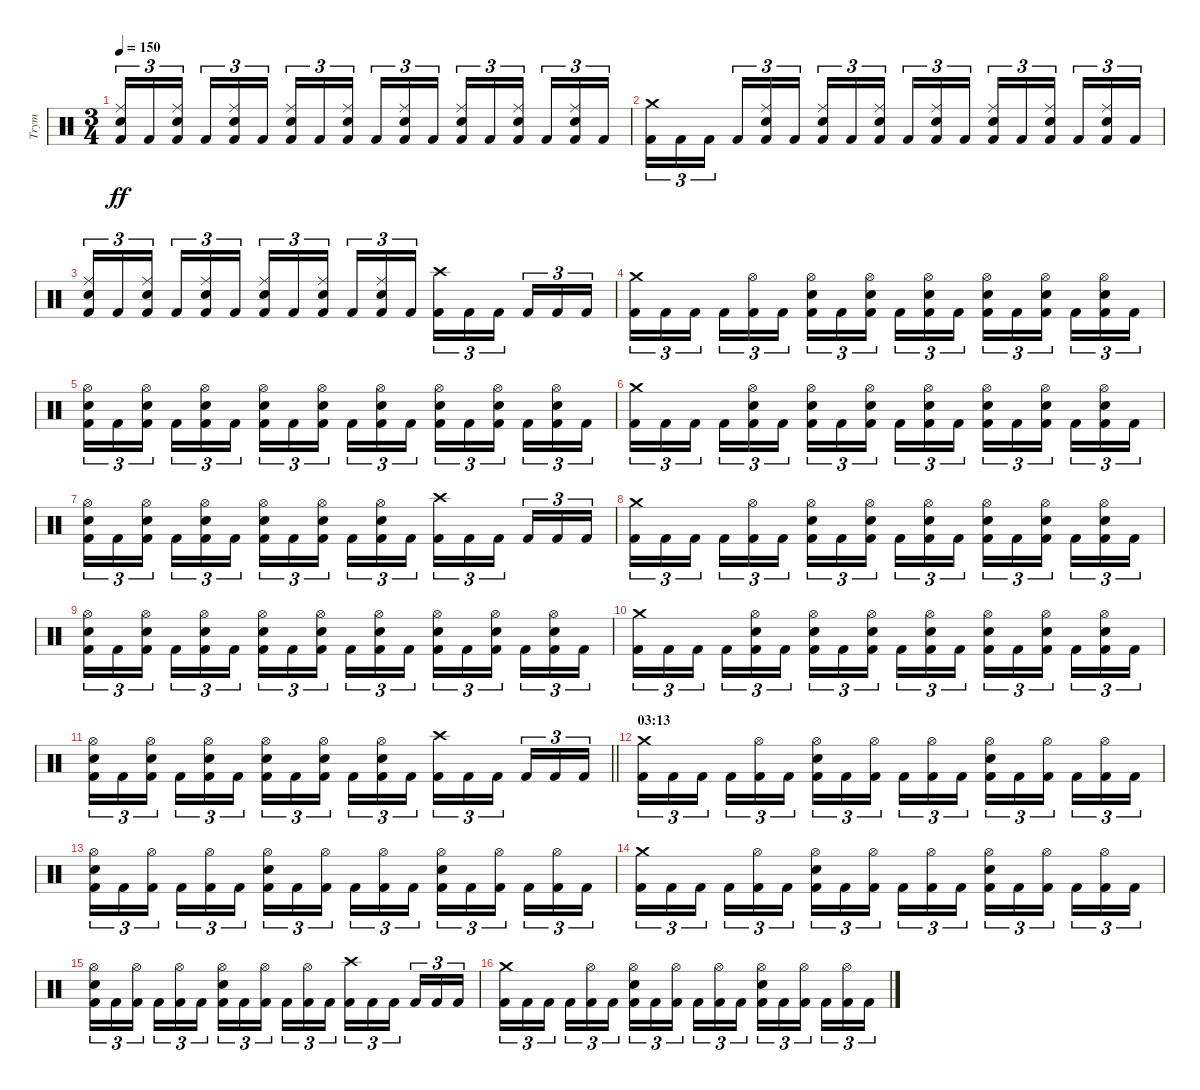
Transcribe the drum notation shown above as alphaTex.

\track ("Trym" "Trym") {instrument percussion}
\staff {score}
\articulation defaults
\ts (3 4)
\tempo 150
\clef neutral
\ks c
("Snare (hit) 2" "Ride (middle)" "Kick (hit) 2").16{tu (3 2) dy ff} "Kick (hit) 2".16{tu (3 2)} ("Snare (hit) 2" "Ride (middle)" "Kick (hit) 2").16{tu (3 2) beam splitsecondary} "Kick (hit) 2".16{tu (3 2)} ("Snare (hit) 2" "Ride (middle)" "Kick (hit) 2").16{tu (3 2)} "Kick (hit) 2".16{tu (3 2)} ("Snare (hit) 2" "Ride (middle)" "Kick (hit) 2").16{tu (3 2)} "Kick (hit) 2".16{tu (3 2)} ("Snare (hit) 2" "Ride (middle)" "Kick (hit) 2").16{tu (3 2) beam splitsecondary} "Kick (hit) 2".16{tu (3 2)} ("Snare (hit) 2" "Ride (middle)" "Kick (hit) 2").16{tu (3 2)} "Kick (hit) 2".16{tu (3 2)} ("Snare (hit) 2" "Ride (middle)" "Kick (hit) 2").16{tu (3 2)} "Kick (hit) 2".16{tu (3 2)} ("Snare (hit) 2" "Ride (middle)" "Kick (hit) 2").16{tu (3 2) beam splitsecondary} "Kick (hit) 2".16{tu (3 2)} ("Snare (hit) 2" "Ride (middle)" "Kick (hit) 2").16{tu (3 2)} "Kick (hit) 2".16{tu (3 2)} |
("Crash medium (hit)" "Kick (hit) 2").16{tu (3 2)} "Kick (hit) 2".16{tu (3 2)} "Kick (hit) 2".16{tu (3 2) beam splitsecondary} "Kick (hit) 2".16{tu (3 2)} ("Snare (hit) 2" "Ride (middle)" "Kick (hit) 2").16{tu (3 2)} "Kick (hit) 2".16{tu (3 2)} ("Snare (hit) 2" "Ride (middle)" "Kick (hit) 2").16{tu (3 2)} "Kick (hit) 2".16{tu (3 2)} ("Snare (hit) 2" "Ride (middle)" "Kick (hit) 2").16{tu (3 2) beam splitsecondary} "Kick (hit) 2".16{tu (3 2)} ("Snare (hit) 2" "Ride (middle)" "Kick (hit) 2").16{tu (3 2)} "Kick (hit) 2".16{tu (3 2)} ("Snare (hit) 2" "Ride (middle)" "Kick (hit) 2").16{tu (3 2)} "Kick (hit) 2".16{tu (3 2)} ("Snare (hit) 2" "Ride (middle)" "Kick (hit) 2").16{tu (3 2) beam splitsecondary} "Kick (hit) 2".16{tu (3 2)} ("Snare (hit) 2" "Ride (middle)" "Kick (hit) 2").16{tu (3 2)} "Kick (hit) 2".16{tu (3 2)} |
("Snare (hit) 2" "Ride (middle)" "Kick (hit) 2").16{tu (3 2)} "Kick (hit) 2".16{tu (3 2)} ("Snare (hit) 2" "Ride (middle)" "Kick (hit) 2").16{tu (3 2) beam splitsecondary} "Kick (hit) 2".16{tu (3 2)} ("Snare (hit) 2" "Ride (middle)" "Kick (hit) 2").16{tu (3 2)} "Kick (hit) 2".16{tu (3 2)} ("Snare (hit) 2" "Ride (middle)" "Kick (hit) 2").16{tu (3 2)} "Kick (hit) 2".16{tu (3 2)} ("Snare (hit) 2" "Ride (middle)" "Kick (hit) 2").16{tu (3 2) beam splitsecondary} "Kick (hit) 2".16{tu (3 2)} ("Snare (hit) 2" "Ride (middle)" "Kick (hit) 2").16{tu (3 2)} "Kick (hit) 2".16{tu (3 2)} ("Crash high (hit)" "Kick (hit) 2").16{tu (3 2)} "Kick (hit) 2".16{tu (3 2)} "Kick (hit) 2".16{tu (3 2) beam splitsecondary} "Kick (hit) 2".16{tu (3 2)} "Kick (hit) 2".16{tu (3 2)} "Kick (hit) 2".16{tu (3 2)} |
("Crash medium (hit)" "Kick (hit) 2").16{tu (3 2)} "Kick (hit) 2".16{tu (3 2)} "Kick (hit) 2".16{tu (3 2) beam splitsecondary} "Kick (hit) 2".16{tu (3 2)} ("Hi-Hat (open)" "Kick (hit) 2").16{tu (3 2)} "Kick (hit) 2".16{tu (3 2)} ("Snare (hit) 2" "Hi-Hat (open)" "Kick (hit) 2").16{tu (3 2)} "Kick (hit) 2".16{tu (3 2)} ("Snare (hit) 2" "Hi-Hat (open)" "Kick (hit) 2").16{tu (3 2) beam splitsecondary} "Kick (hit) 2".16{tu (3 2)} ("Snare (hit) 2" "Hi-Hat (open)" "Kick (hit) 2").16{tu (3 2)} "Kick (hit) 2".16{tu (3 2)} ("Snare (hit) 2" "Hi-Hat (open)" "Kick (hit) 2").16{tu (3 2)} "Kick (hit) 2".16{tu (3 2)} ("Snare (hit) 2" "Hi-Hat (open)" "Kick (hit) 2").16{tu (3 2) beam splitsecondary} "Kick (hit) 2".16{tu (3 2)} ("Snare (hit) 2" "Hi-Hat (open)" "Kick (hit) 2").16{tu (3 2)} "Kick (hit) 2".16{tu (3 2)} |
("Snare (hit) 2" "Hi-Hat (open)" "Kick (hit) 2").16{tu (3 2)} "Kick (hit) 2".16{tu (3 2)} ("Snare (hit) 2" "Hi-Hat (open)" "Kick (hit) 2").16{tu (3 2) beam splitsecondary} "Kick (hit) 2".16{tu (3 2)} ("Snare (hit) 2" "Hi-Hat (open)" "Kick (hit) 2").16{tu (3 2)} "Kick (hit) 2".16{tu (3 2)} ("Snare (hit) 2" "Hi-Hat (open)" "Kick (hit) 2").16{tu (3 2)} "Kick (hit) 2".16{tu (3 2)} ("Snare (hit) 2" "Hi-Hat (open)" "Kick (hit) 2").16{tu (3 2) beam splitsecondary} "Kick (hit) 2".16{tu (3 2)} ("Snare (hit) 2" "Hi-Hat (open)" "Kick (hit) 2").16{tu (3 2)} "Kick (hit) 2".16{tu (3 2)} ("Snare (hit) 2" "Hi-Hat (open)" "Kick (hit) 2").16{tu (3 2)} "Kick (hit) 2".16{tu (3 2)} ("Snare (hit) 2" "Hi-Hat (open)" "Kick (hit) 2").16{tu (3 2) beam splitsecondary} "Kick (hit) 2".16{tu (3 2)} ("Snare (hit) 2" "Hi-Hat (open)" "Kick (hit) 2").16{tu (3 2)} "Kick (hit) 2".16{tu (3 2)} |
("Crash medium (hit)" "Kick (hit) 2").16{tu (3 2)} "Kick (hit) 2".16{tu (3 2)} "Kick (hit) 2".16{tu (3 2) beam splitsecondary} "Kick (hit) 2".16{tu (3 2)} ("Snare (hit) 2" "Hi-Hat (open)" "Kick (hit) 2").16{tu (3 2)} "Kick (hit) 2".16{tu (3 2)} ("Snare (hit) 2" "Hi-Hat (open)" "Kick (hit) 2").16{tu (3 2)} "Kick (hit) 2".16{tu (3 2)} ("Snare (hit) 2" "Hi-Hat (open)" "Kick (hit) 2").16{tu (3 2) beam splitsecondary} "Kick (hit) 2".16{tu (3 2)} ("Snare (hit) 2" "Hi-Hat (open)" "Kick (hit) 2").16{tu (3 2)} "Kick (hit) 2".16{tu (3 2)} ("Snare (hit) 2" "Hi-Hat (open)" "Kick (hit) 2").16{tu (3 2)} "Kick (hit) 2".16{tu (3 2)} ("Snare (hit) 2" "Hi-Hat (open)" "Kick (hit) 2").16{tu (3 2) beam splitsecondary} "Kick (hit) 2".16{tu (3 2)} ("Snare (hit) 2" "Hi-Hat (open)" "Kick (hit) 2").16{tu (3 2)} "Kick (hit) 2".16{tu (3 2)} |
("Snare (hit) 2" "Hi-Hat (open)" "Kick (hit) 2").16{tu (3 2)} "Kick (hit) 2".16{tu (3 2)} ("Snare (hit) 2" "Hi-Hat (open)" "Kick (hit) 2").16{tu (3 2) beam splitsecondary} "Kick (hit) 2".16{tu (3 2)} ("Snare (hit) 2" "Hi-Hat (open)" "Kick (hit) 2").16{tu (3 2)} "Kick (hit) 2".16{tu (3 2)} ("Snare (hit) 2" "Hi-Hat (open)" "Kick (hit) 2").16{tu (3 2)} "Kick (hit) 2".16{tu (3 2)} ("Snare (hit) 2" "Hi-Hat (open)" "Kick (hit) 2").16{tu (3 2) beam splitsecondary} "Kick (hit) 2".16{tu (3 2)} ("Snare (hit) 2" "Hi-Hat (open)" "Kick (hit) 2").16{tu (3 2)} "Kick (hit) 2".16{tu (3 2)} ("Crash high (hit)" "Kick (hit) 2").16{tu (3 2)} "Kick (hit) 2".16{tu (3 2)} "Kick (hit) 2".16{tu (3 2) beam splitsecondary} "Kick (hit) 2".16{tu (3 2)} "Kick (hit) 2".16{tu (3 2)} "Kick (hit) 2".16{tu (3 2)} |
("Crash medium (hit)" "Kick (hit) 2").16{tu (3 2)} "Kick (hit) 2".16{tu (3 2)} "Kick (hit) 2".16{tu (3 2) beam splitsecondary} "Kick (hit) 2".16{tu (3 2)} ("Hi-Hat (open)" "Kick (hit) 2").16{tu (3 2)} "Kick (hit) 2".16{tu (3 2)} ("Snare (hit) 2" "Hi-Hat (open)" "Kick (hit) 2").16{tu (3 2)} "Kick (hit) 2".16{tu (3 2)} ("Snare (hit) 2" "Hi-Hat (open)" "Kick (hit) 2").16{tu (3 2) beam splitsecondary} "Kick (hit) 2".16{tu (3 2)} ("Snare (hit) 2" "Hi-Hat (open)" "Kick (hit) 2").16{tu (3 2)} "Kick (hit) 2".16{tu (3 2)} ("Snare (hit) 2" "Hi-Hat (open)" "Kick (hit) 2").16{tu (3 2)} "Kick (hit) 2".16{tu (3 2)} ("Snare (hit) 2" "Hi-Hat (open)" "Kick (hit) 2").16{tu (3 2) beam splitsecondary} "Kick (hit) 2".16{tu (3 2)} ("Snare (hit) 2" "Hi-Hat (open)" "Kick (hit) 2").16{tu (3 2)} "Kick (hit) 2".16{tu (3 2)} |
("Snare (hit) 2" "Hi-Hat (open)" "Kick (hit) 2").16{tu (3 2)} "Kick (hit) 2".16{tu (3 2)} ("Snare (hit) 2" "Hi-Hat (open)" "Kick (hit) 2").16{tu (3 2) beam splitsecondary} "Kick (hit) 2".16{tu (3 2)} ("Snare (hit) 2" "Hi-Hat (open)" "Kick (hit) 2").16{tu (3 2)} "Kick (hit) 2".16{tu (3 2)} ("Snare (hit) 2" "Hi-Hat (open)" "Kick (hit) 2").16{tu (3 2)} "Kick (hit) 2".16{tu (3 2)} ("Snare (hit) 2" "Hi-Hat (open)" "Kick (hit) 2").16{tu (3 2) beam splitsecondary} "Kick (hit) 2".16{tu (3 2)} ("Snare (hit) 2" "Hi-Hat (open)" "Kick (hit) 2").16{tu (3 2)} "Kick (hit) 2".16{tu (3 2)} ("Snare (hit) 2" "Hi-Hat (open)" "Kick (hit) 2").16{tu (3 2)} "Kick (hit) 2".16{tu (3 2)} ("Snare (hit) 2" "Hi-Hat (open)" "Kick (hit) 2").16{tu (3 2) beam splitsecondary} "Kick (hit) 2".16{tu (3 2)} ("Snare (hit) 2" "Hi-Hat (open)" "Kick (hit) 2").16{tu (3 2)} "Kick (hit) 2".16{tu (3 2)} |
("Crash medium (hit)" "Kick (hit) 2").16{tu (3 2)} "Kick (hit) 2".16{tu (3 2)} "Kick (hit) 2".16{tu (3 2) beam splitsecondary} "Kick (hit) 2".16{tu (3 2)} ("Snare (hit) 2" "Hi-Hat (open)" "Kick (hit) 2").16{tu (3 2)} "Kick (hit) 2".16{tu (3 2)} ("Snare (hit) 2" "Hi-Hat (open)" "Kick (hit) 2").16{tu (3 2)} "Kick (hit) 2".16{tu (3 2)} ("Snare (hit) 2" "Hi-Hat (open)" "Kick (hit) 2").16{tu (3 2) beam splitsecondary} "Kick (hit) 2".16{tu (3 2)} ("Snare (hit) 2" "Hi-Hat (open)" "Kick (hit) 2").16{tu (3 2)} "Kick (hit) 2".16{tu (3 2)} ("Snare (hit) 2" "Hi-Hat (open)" "Kick (hit) 2").16{tu (3 2)} "Kick (hit) 2".16{tu (3 2)} ("Snare (hit) 2" "Hi-Hat (open)" "Kick (hit) 2").16{tu (3 2) beam splitsecondary} "Kick (hit) 2".16{tu (3 2)} ("Snare (hit) 2" "Hi-Hat (open)" "Kick (hit) 2").16{tu (3 2)} "Kick (hit) 2".16{tu (3 2)} |
\barLineRight lightlight
("Snare (hit) 2" "Hi-Hat (open)" "Kick (hit) 2").16{tu (3 2)} "Kick (hit) 2".16{tu (3 2)} ("Snare (hit) 2" "Hi-Hat (open)" "Kick (hit) 2").16{tu (3 2) beam splitsecondary} "Kick (hit) 2".16{tu (3 2)} ("Snare (hit) 2" "Hi-Hat (open)" "Kick (hit) 2").16{tu (3 2)} "Kick (hit) 2".16{tu (3 2)} ("Snare (hit) 2" "Hi-Hat (open)" "Kick (hit) 2").16{tu (3 2)} "Kick (hit) 2".16{tu (3 2)} ("Snare (hit) 2" "Hi-Hat (open)" "Kick (hit) 2").16{tu (3 2) beam splitsecondary} "Kick (hit) 2".16{tu (3 2)} ("Snare (hit) 2" "Hi-Hat (open)" "Kick (hit) 2").16{tu (3 2)} "Kick (hit) 2".16{tu (3 2)} ("Crash high (hit)" "Kick (hit) 2").16{tu (3 2)} "Kick (hit) 2".16{tu (3 2)} "Kick (hit) 2".16{tu (3 2) beam splitsecondary} "Kick (hit) 2".16{tu (3 2)} "Kick (hit) 2".16{tu (3 2)} "Kick (hit) 2".16{tu (3 2)} |
\section ("" "03:13")
("Crash medium (hit)" "Kick (hit) 2").16{tu (3 2)} "Kick (hit) 2".16{tu (3 2)} "Kick (hit) 2".16{tu (3 2) beam splitsecondary} "Kick (hit) 2".16{tu (3 2)} ("Hi-Hat (open)" "Kick (hit) 2").16{tu (3 2)} "Kick (hit) 2".16{tu (3 2)} ("Snare (hit) 2" "Hi-Hat (open)" "Kick (hit) 2").16{tu (3 2)} "Kick (hit) 2".16{tu (3 2)} ("Hi-Hat (open)" "Kick (hit) 2").16{tu (3 2) beam splitsecondary} "Kick (hit) 2".16{tu (3 2)} ("Hi-Hat (open)" "Kick (hit) 2").16{tu (3 2)} "Kick (hit) 2".16{tu (3 2)} ("Snare (hit) 2" "Hi-Hat (open)" "Kick (hit) 2").16{tu (3 2)} "Kick (hit) 2".16{tu (3 2)} ("Hi-Hat (open)" "Kick (hit) 2").16{tu (3 2) beam splitsecondary} "Kick (hit) 2".16{tu (3 2)} ("Hi-Hat (open)" "Kick (hit) 2").16{tu (3 2)} "Kick (hit) 2".16{tu (3 2)} |
("Snare (hit) 2" "Hi-Hat (open)" "Kick (hit) 2").16{tu (3 2)} "Kick (hit) 2".16{tu (3 2)} ("Hi-Hat (open)" "Kick (hit) 2").16{tu (3 2) beam splitsecondary} "Kick (hit) 2".16{tu (3 2)} ("Hi-Hat (open)" "Kick (hit) 2").16{tu (3 2)} "Kick (hit) 2".16{tu (3 2)} ("Snare (hit) 2" "Hi-Hat (open)" "Kick (hit) 2").16{tu (3 2)} "Kick (hit) 2".16{tu (3 2)} ("Hi-Hat (open)" "Kick (hit) 2").16{tu (3 2) beam splitsecondary} "Kick (hit) 2".16{tu (3 2)} ("Hi-Hat (open)" "Kick (hit) 2").16{tu (3 2)} "Kick (hit) 2".16{tu (3 2)} ("Snare (hit) 2" "Hi-Hat (open)" "Kick (hit) 2").16{tu (3 2)} "Kick (hit) 2".16{tu (3 2)} ("Hi-Hat (open)" "Kick (hit) 2").16{tu (3 2) beam splitsecondary} "Kick (hit) 2".16{tu (3 2)} ("Hi-Hat (open)" "Kick (hit) 2").16{tu (3 2)} "Kick (hit) 2".16{tu (3 2)} |
("Crash medium (hit)" "Kick (hit) 2").16{tu (3 2)} "Kick (hit) 2".16{tu (3 2)} "Kick (hit) 2".16{tu (3 2) beam splitsecondary} "Kick (hit) 2".16{tu (3 2)} ("Hi-Hat (open)" "Kick (hit) 2").16{tu (3 2)} "Kick (hit) 2".16{tu (3 2)} ("Snare (hit) 2" "Hi-Hat (open)" "Kick (hit) 2").16{tu (3 2)} "Kick (hit) 2".16{tu (3 2)} ("Hi-Hat (open)" "Kick (hit) 2").16{tu (3 2) beam splitsecondary} "Kick (hit) 2".16{tu (3 2)} ("Hi-Hat (open)" "Kick (hit) 2").16{tu (3 2)} "Kick (hit) 2".16{tu (3 2)} ("Snare (hit) 2" "Hi-Hat (open)" "Kick (hit) 2").16{tu (3 2)} "Kick (hit) 2".16{tu (3 2)} ("Hi-Hat (open)" "Kick (hit) 2").16{tu (3 2) beam splitsecondary} "Kick (hit) 2".16{tu (3 2)} ("Hi-Hat (open)" "Kick (hit) 2").16{tu (3 2)} "Kick (hit) 2".16{tu (3 2)} |
("Snare (hit) 2" "Hi-Hat (open)" "Kick (hit) 2").16{tu (3 2)} "Kick (hit) 2".16{tu (3 2)} ("Hi-Hat (open)" "Kick (hit) 2").16{tu (3 2) beam splitsecondary} "Kick (hit) 2".16{tu (3 2)} ("Hi-Hat (open)" "Kick (hit) 2").16{tu (3 2)} "Kick (hit) 2".16{tu (3 2)} ("Snare (hit) 2" "Hi-Hat (open)" "Kick (hit) 2").16{tu (3 2)} "Kick (hit) 2".16{tu (3 2)} ("Hi-Hat (open)" "Kick (hit) 2").16{tu (3 2) beam splitsecondary} "Kick (hit) 2".16{tu (3 2)} ("Hi-Hat (open)" "Kick (hit) 2").16{tu (3 2)} "Kick (hit) 2".16{tu (3 2)} ("Crash high (hit)" "Kick (hit) 2").16{tu (3 2)} "Kick (hit) 2".16{tu (3 2)} "Kick (hit) 2".16{tu (3 2) beam splitsecondary} "Kick (hit) 2".16{tu (3 2)} "Kick (hit) 2".16{tu (3 2)} "Kick (hit) 2".16{tu (3 2)} |
("Crash medium (hit)" "Kick (hit) 2").16{tu (3 2)} "Kick (hit) 2".16{tu (3 2)} "Kick (hit) 2".16{tu (3 2) beam splitsecondary} "Kick (hit) 2".16{tu (3 2)} ("Hi-Hat (open)" "Kick (hit) 2").16{tu (3 2)} "Kick (hit) 2".16{tu (3 2)} ("Snare (hit) 2" "Hi-Hat (open)" "Kick (hit) 2").16{tu (3 2)} "Kick (hit) 2".16{tu (3 2)} ("Hi-Hat (open)" "Kick (hit) 2").16{tu (3 2) beam splitsecondary} "Kick (hit) 2".16{tu (3 2)} ("Hi-Hat (open)" "Kick (hit) 2").16{tu (3 2)} "Kick (hit) 2".16{tu (3 2)} ("Snare (hit) 2" "Hi-Hat (open)" "Kick (hit) 2").16{tu (3 2)} "Kick (hit) 2".16{tu (3 2)} ("Hi-Hat (open)" "Kick (hit) 2").16{tu (3 2) beam splitsecondary} "Kick (hit) 2".16{tu (3 2)} ("Hi-Hat (open)" "Kick (hit) 2").16{tu (3 2)} "Kick (hit) 2".16{tu (3 2)}
